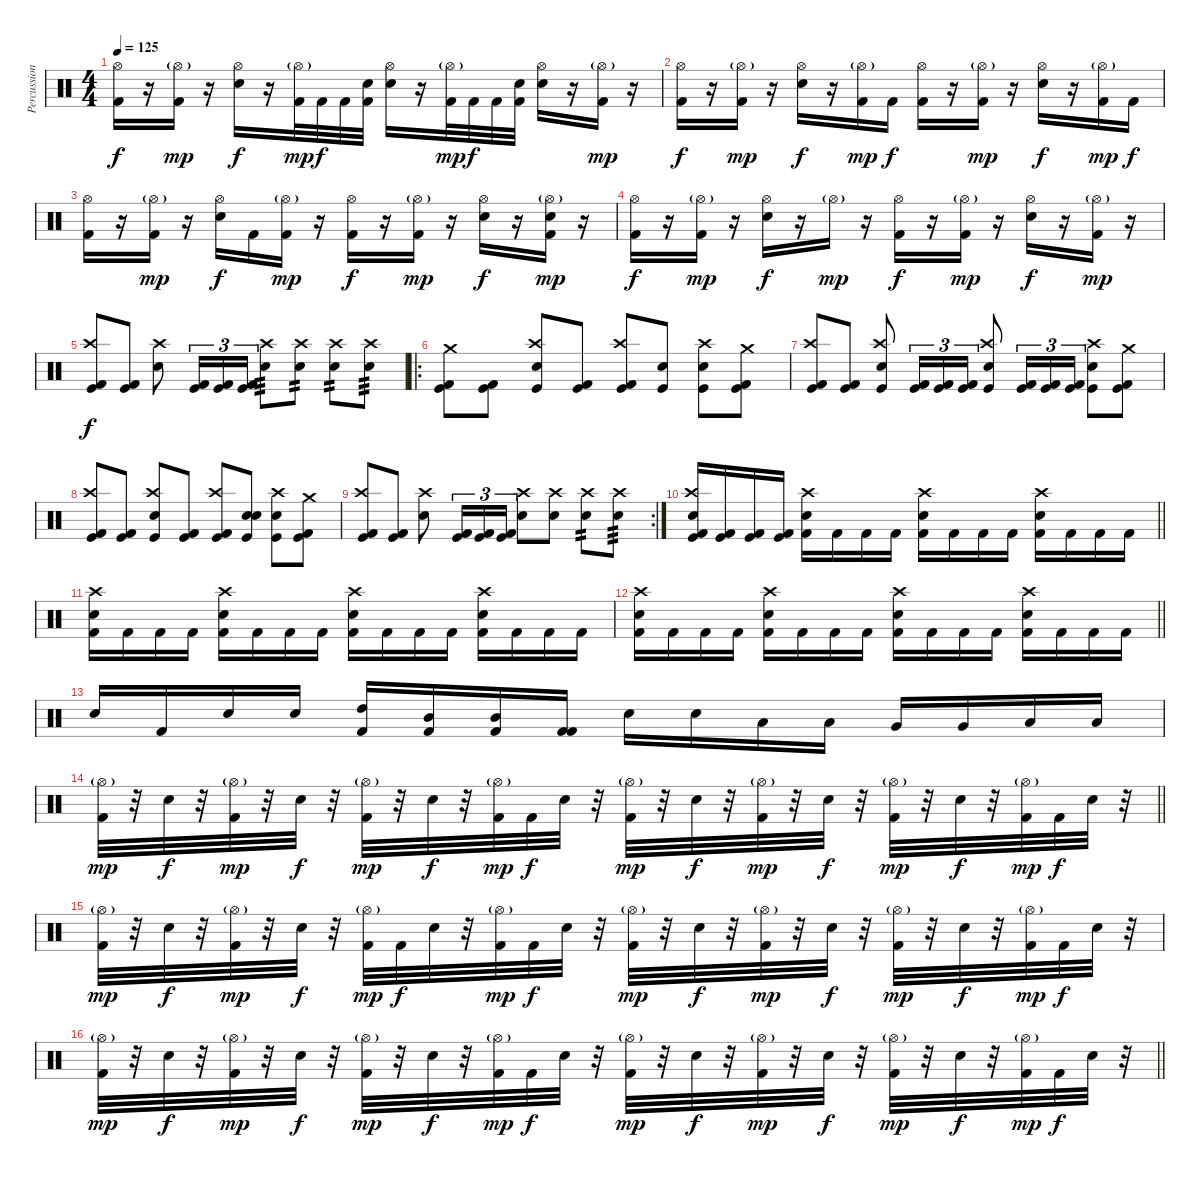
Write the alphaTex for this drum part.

\track ("Percussion" "Percussion") {instrument percussion}
\staff {score}
\articulation defaults
\ts (4 4)
\tempo 125
\clef neutral
\ks c
("Hi-Hat (open)" "Kick (hit) 2").16{dy f} r.16 ("Hi-Hat (open)"{g} "Kick (hit) 2").16{dy mp} r.16 ("Hi-Hat (open)" "Electric Snare (hit)").16{dy f} r.16 ("Hi-Hat (open)"{g} "Kick (hit) 2").32{dy mp} "Kick (hit) 2".32{dy f} "Kick (hit) 2".32 ("Snare (hit)" "Kick (hit) 2").32 ("Hi-Hat (open)" "Electric Snare (hit)").16 r.16 ("Hi-Hat (open)"{g} "Kick (hit) 2").32{dy mp} "Kick (hit) 2".32{dy f} "Kick (hit) 2".32 ("Snare (hit)" "Kick (hit) 2").32 ("Hi-Hat (open)" "Electric Snare (hit)").16 r.16 ("Kick (hit) 2" "Hi-Hat (open)"{g}).16{dy mp} r.16 |
("Hi-Hat (open)" "Kick (hit) 2").16{dy f} r.16 ("Hi-Hat (open)"{g} "Kick (hit) 2").16{dy mp} r.16 ("Hi-Hat (open)" "Electric Snare (hit)").16{dy f} r.16 ("Hi-Hat (open)"{g} "Kick (hit) 2").16{dy mp} "Kick (hit) 2".16{dy f} ("Hi-Hat (open)" "Kick (hit) 2").16 r.16 ("Hi-Hat (open)"{g} "Kick (hit) 2").16{dy mp} r.16 ("Hi-Hat (open)" "Electric Snare (hit)").16{dy f} r.16 ("Hi-Hat (open)"{g} "Kick (hit) 2").16{dy mp} "Kick (hit) 2".16{dy f} |
("Hi-Hat (open)" "Kick (hit) 2").16 r.16 ("Hi-Hat (open)"{g} "Kick (hit) 2").16{dy mp} r.16 ("Hi-Hat (open)" "Electric Snare (hit)").16{dy f} "Kick (hit) 2".16 ("Hi-Hat (open)"{g} "Kick (hit) 2").16{dy mp} r.16 ("Hi-Hat (open)" "Kick (hit) 2").16{dy f} r.16 ("Hi-Hat (open)"{g} "Kick (hit) 2").16{dy mp} r.16 ("Hi-Hat (open)" "Electric Snare (hit)").16{dy f} r.16 ("Hi-Hat (open)"{g} "Electric Snare (hit)" "Kick (hit) 2").16{dy mp} r.16 |
("Hi-Hat (open)" "Kick (hit) 2").16{dy f} r.16 ("Hi-Hat (open)"{g} "Kick (hit) 2").16{dy mp} r.16 ("Hi-Hat (open)" "Electric Snare (hit)").16{dy f} r.16 "Hi-Hat (open)"{g}.16{dy mp} r.16 ("Hi-Hat (open)" "Kick (hit) 2").16{dy f} r.16 ("Hi-Hat (open)"{g} "Kick (hit) 2").16{dy mp} r.16 ("Hi-Hat (open)" "Electric Snare (hit)").16{dy f} r.16 ("Hi-Hat (open)"{g} "Kick (hit) 2").16{dy mp} r.16 |
("Crash high (hit)" "Kick (hit)" "Kick (hit) 2").8{dy f} ("Kick (hit)" "Kick (hit) 2").8 ("Crash high (hit)" "Electric Snare (hit)").8 ("Kick (hit)" "Kick (hit) 2").16{tu (3 2)} ("Kick (hit)" "Kick (hit) 2").16{tu (3 2)} ("Kick (hit)" "Kick (hit) 2").16{tu (3 2)} ("Crash high (hit)" "Electric Snare (hit)").8{tp 3} ("Crash high (hit)" "Electric Snare (hit)").8{tp 2} ("Crash high (hit)" "Electric Snare (hit)").8{tp 2} ("Crash high (hit)" "Electric Snare (hit)").8{tp 3} |
\ro
("Crash medium (hit)" "Kick (hit) 2" "Kick (hit)").8 ("Kick (hit) 2" "Kick (hit)").8 ("Crash high (hit)" "Electric Snare (hit)" "Kick (hit)").8 ("Kick (hit) 2" "Kick (hit)").8 ("Crash high (hit)" "Kick (hit) 2" "Kick (hit)").8 ("Electric Snare (hit)" "Kick (hit)").8 ("Crash high (hit)" "Electric Snare (hit)" "Kick (hit)").8 ("Crash medium (hit)" "Kick (hit)" "Kick (hit) 2").8 |
("Crash high (hit)" "Kick (hit)" "Kick (hit) 2").8 ("Kick (hit)" "Kick (hit) 2").8 ("Crash high (hit)" "Electric Snare (hit)" "Kick (hit)").8 ("Kick (hit)" "Kick (hit) 2").16{tu (3 2)} ("Kick (hit)" "Kick (hit) 2").16{tu (3 2)} ("Kick (hit)" "Kick (hit) 2").16{tu (3 2)} ("Crash high (hit)" "Electric Snare (hit)" "Kick (hit)").8 ("Kick (hit)" "Kick (hit) 2").16{tu (3 2)} ("Kick (hit)" "Kick (hit) 2").16{tu (3 2)} ("Kick (hit)" "Kick (hit) 2").16{tu (3 2)} ("Crash high (hit)" "Kick (hit)" "Electric Snare (hit)").8 ("Crash medium (hit)" "Kick (hit)" "Kick (hit) 2").8 |
("Crash high (hit)" "Kick (hit) 2" "Kick (hit)").8 ("Kick (hit) 2" "Kick (hit)").8 ("Crash high (hit)" "Electric Snare (hit)" "Kick (hit)").8 ("Kick (hit) 2" "Kick (hit)").8 ("Crash high (hit)" "Kick (hit) 2" "Kick (hit)").8 ("Snare (hit)" "Electric Snare (hit)" "Kick (hit)").8 ("Crash high (hit)" "Electric Snare (hit)" "Kick (hit)").8 ("Crash medium (hit)" "Kick (hit)" "Kick (hit) 2").8 |
\rc 2
("Crash high (hit)" "Kick (hit)" "Kick (hit) 2").8 ("Kick (hit)" "Kick (hit) 2").8 ("Crash high (hit)" "Electric Snare (hit)").8 ("Kick (hit)" "Kick (hit) 2").16{tu (3 2)} ("Kick (hit)" "Kick (hit) 2").16{tu (3 2)} ("Kick (hit)" "Kick (hit) 2").16{tu (3 2)} ("Crash high (hit)" "Electric Snare (hit)").8 ("Crash high (hit)" "Electric Snare (hit)").8 ("Crash high (hit)" "Electric Snare (hit)").8{tp 2} ("Crash high (hit)" "Electric Snare (hit)").8{tp 3} |
\barLineRight lightlight
("Crash high (hit)" "Electric Snare (hit)" "Kick (hit) 2" "Kick (hit)").16 ("Kick (hit) 2" "Kick (hit)").16 ("Kick (hit) 2" "Kick (hit)").16 ("Kick (hit) 2" "Kick (hit)").16 ("Crash high (hit)" "Electric Snare (hit)" "Kick (hit) 2").16 "Kick (hit) 2".16 "Kick (hit) 2".16 "Kick (hit) 2".16 ("Crash high (hit)" "Electric Snare (hit)" "Kick (hit) 2").16 "Kick (hit) 2".16 "Kick (hit) 2".16 "Kick (hit) 2".16 ("Crash high (hit)" "Electric Snare (hit)" "Kick (hit) 2").16 "Kick (hit) 2".16 "Kick (hit) 2".16 "Kick (hit) 2".16 |
("Crash high (hit)" "Electric Snare (hit)" "Kick (hit) 2").16 "Kick (hit) 2".16 "Kick (hit) 2".16 "Kick (hit) 2".16 ("Crash high (hit)" "Electric Snare (hit)" "Kick (hit) 2").16 "Kick (hit) 2".16 "Kick (hit) 2".16 "Kick (hit) 2".16 ("Crash high (hit)" "Electric Snare (hit)" "Kick (hit) 2").16 "Kick (hit) 2".16 "Kick (hit) 2".16 "Kick (hit) 2".16 ("Crash high (hit)" "Electric Snare (hit)" "Kick (hit) 2").16 "Kick (hit) 2".16 "Kick (hit) 2".16 "Kick (hit) 2".16 |
\barLineRight lightlight
("Crash high (hit)" "Electric Snare (hit)" "Kick (hit) 2").16 "Kick (hit) 2".16 "Kick (hit) 2".16 "Kick (hit) 2".16 ("Crash high (hit)" "Electric Snare (hit)" "Kick (hit) 2").16 "Kick (hit) 2".16 "Kick (hit) 2".16 "Kick (hit) 2".16 ("Crash high (hit)" "Electric Snare (hit)" "Kick (hit) 2").16 "Kick (hit) 2".16 "Kick (hit) 2".16 "Kick (hit) 2".16 ("Crash high (hit)" "Electric Snare (hit)" "Kick (hit) 2").16 "Kick (hit) 2".16 "Kick (hit) 2".16 "Kick (hit) 2".16 |
"Electric Snare (hit)".16 "Kick (hit) 2".16 "Electric Snare (hit)".16 "Electric Snare (hit)".16 ("High Tom (hit)" "Kick (hit) 2").16 ("Mid Tom (hit)" "Kick (hit) 2").16 ("Mid Tom (hit)" "Kick (hit) 2").16 ("Kick (hit) 2" "Kick (hit) 2").16 "Electric Snare (hit)".16 "Electric Snare (hit)".16 "Low Tom (hit)".16 "Low Tom (hit)".16 "Very Low Tom (hit)".16 "Very Low Tom (hit)".16 "Low Floor Tom (hit)".16 "Low Floor Tom (hit)".16 |
\barLineRight lightlight
("Hi-Hat (open)"{g} "Kick (hit) 2").32{dy mp} r.32 "Electric Snare (hit)".32{dy f} r.32 ("Hi-Hat (open)"{g} "Kick (hit) 2").32{dy mp} r.32 "Electric Snare (hit)".32{dy f} r.32 ("Hi-Hat (open)"{g} "Kick (hit) 2").32{dy mp} r.32 "Electric Snare (hit)".32{dy f} r.32 ("Hi-Hat (open)"{g} "Kick (hit) 2").32{dy mp} "Kick (hit) 2".32{dy f} "Electric Snare (hit)".32 r.32 ("Hi-Hat (open)"{g} "Kick (hit) 2").32{dy mp} r.32 "Electric Snare (hit)".32{dy f} r.32 ("Hi-Hat (open)"{g} "Kick (hit) 2").32{dy mp} r.32 "Electric Snare (hit)".32{dy f} r.32 ("Hi-Hat (open)"{g} "Kick (hit) 2").32{dy mp} r.32 "Electric Snare (hit)".32{dy f} r.32 ("Hi-Hat (open)"{g} "Kick (hit) 2").32{dy mp} "Kick (hit) 2".32{dy f} "Electric Snare (hit)".32 r.32 |
("Hi-Hat (open)"{g} "Kick (hit) 2").32{dy mp} r.32 "Electric Snare (hit)".32{dy f} r.32 ("Hi-Hat (open)"{g} "Kick (hit) 2").32{dy mp} r.32 "Electric Snare (hit)".32{dy f} r.32 ("Hi-Hat (open)"{g} "Kick (hit) 2").32{dy mp} "Kick (hit) 2".32{dy f} "Electric Snare (hit)".32 r.32 ("Hi-Hat (open)"{g} "Kick (hit) 2").32{dy mp} "Kick (hit) 2".32{dy f} "Electric Snare (hit)".32 r.32 ("Hi-Hat (open)"{g} "Kick (hit) 2").32{dy mp} r.32 "Electric Snare (hit)".32{dy f} r.32 ("Hi-Hat (open)"{g} "Kick (hit) 2").32{dy mp} r.32 "Electric Snare (hit)".32{dy f} r.32 ("Hi-Hat (open)"{g} "Kick (hit) 2").32{dy mp} r.32 "Electric Snare (hit)".32{dy f} r.32 ("Hi-Hat (open)"{g} "Kick (hit) 2").32{dy mp} "Kick (hit) 2".32{dy f} "Electric Snare (hit)".32 r.32 |
\barLineRight lightlight
("Hi-Hat (open)"{g} "Kick (hit) 2").32{dy mp} r.32 "Electric Snare (hit)".32{dy f} r.32 ("Hi-Hat (open)"{g} "Kick (hit) 2").32{dy mp} r.32 "Electric Snare (hit)".32{dy f} r.32 ("Hi-Hat (open)"{g} "Kick (hit) 2").32{dy mp} r.32 "Electric Snare (hit)".32{dy f} r.32 ("Hi-Hat (open)"{g} "Kick (hit) 2").32{dy mp} "Kick (hit) 2".32{dy f} "Electric Snare (hit)".32 r.32 ("Hi-Hat (open)"{g} "Kick (hit) 2").32{dy mp} r.32 "Electric Snare (hit)".32{dy f} r.32 ("Hi-Hat (open)"{g} "Kick (hit) 2").32{dy mp} r.32 "Electric Snare (hit)".32{dy f} r.32 ("Hi-Hat (open)"{g} "Kick (hit) 2").32{dy mp} r.32 "Electric Snare (hit)".32{dy f} r.32 ("Hi-Hat (open)"{g} "Kick (hit) 2").32{dy mp} "Kick (hit) 2".32{dy f} "Electric Snare (hit)".32 r.32
